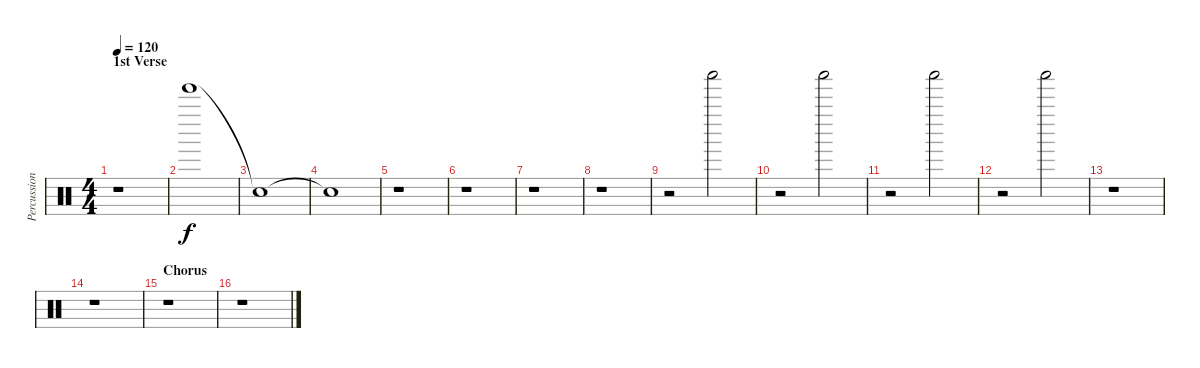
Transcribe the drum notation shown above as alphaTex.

\track ("Percussion" "Percussion") {instrument percussion}
\staff {score}
\articulation defaults
\ts (4 4)
\section ("" "1st Verse")
\tempo 120
\clef neutral
\ks c
r.1{dy f} |
"Tinkle Bell (hit)".1{volume 8} |
"Snare (hit)"{t}.1{volume 0} |
"Snare (hit)"{t}.1 |
r.1 |
r.1 |
r.1 |
r.1 |
r.2{volume 14} "Shaker (hit)".2 |
r.2 "Shaker (hit)".2 |
r.2 "Shaker (hit)".2 |
r.2 "Shaker (hit)".2 |
r.1 |
r.1 |
\section ("" "Chorus")
r.1 |
r.1
